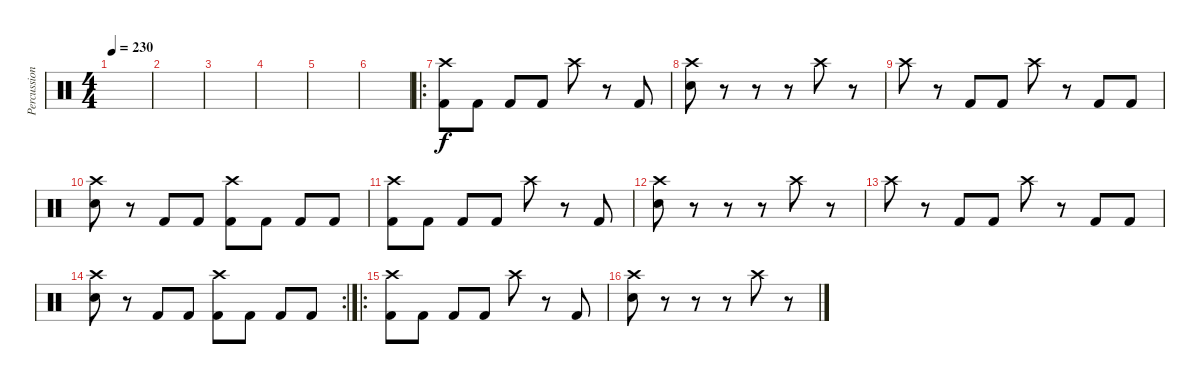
\track ("Percussion" "Percussion") {instrument percussion}
\staff {score}
\articulation defaults
\ts (4 4)
\tempo 230
\clef neutral
\ks c
|
|
|
|
|
|
\ro
("Crash high (hit)" "Kick (hit) 2").8 "Kick (hit) 2".8 "Kick (hit) 2".8 "Kick (hit) 2".8 "Crash high (hit)".8 r.8 "Kick (hit) 2".8 |
("Crash high (hit)" "Electric Snare (hit)").8 r.8 r.8 r.8 "Crash high (hit)".8 r.8 |
"Crash high (hit)".8 r.8 "Kick (hit) 2".8 "Kick (hit) 2".8 "Crash high (hit)".8 r.8 "Kick (hit) 2".8 "Kick (hit) 2".8 |
("Crash high (hit)" "Electric Snare (hit)").8 r.8 "Kick (hit) 2".8 "Kick (hit) 2".8 ("Crash high (hit)" "Kick (hit) 2").8 "Kick (hit) 2".8 "Kick (hit) 2".8 "Kick (hit) 2".8 |
("Crash high (hit)" "Kick (hit) 2").8 "Kick (hit) 2".8 "Kick (hit) 2".8 "Kick (hit) 2".8 "Crash high (hit)".8 r.8 "Kick (hit) 2".8 |
("Crash high (hit)" "Electric Snare (hit)").8 r.8 r.8 r.8 "Crash high (hit)".8 r.8 |
"Crash high (hit)".8 r.8 "Kick (hit) 2".8 "Kick (hit) 2".8 "Crash high (hit)".8 r.8 "Kick (hit) 2".8 "Kick (hit) 2".8 |
\rc 2
("Crash high (hit)" "Electric Snare (hit)").8 r.8 "Kick (hit) 2".8 "Kick (hit) 2".8 ("Crash high (hit)" "Kick (hit) 2").8 "Kick (hit) 2".8 "Kick (hit) 2".8 "Kick (hit) 2".8 |
\ro
("Crash high (hit)" "Kick (hit) 2").8 "Kick (hit) 2".8 "Kick (hit) 2".8 "Kick (hit) 2".8 "Crash high (hit)".8 r.8 "Kick (hit) 2".8 |
("Crash high (hit)" "Electric Snare (hit)").8 r.8 r.8 r.8 "Crash high (hit)".8 r.8
